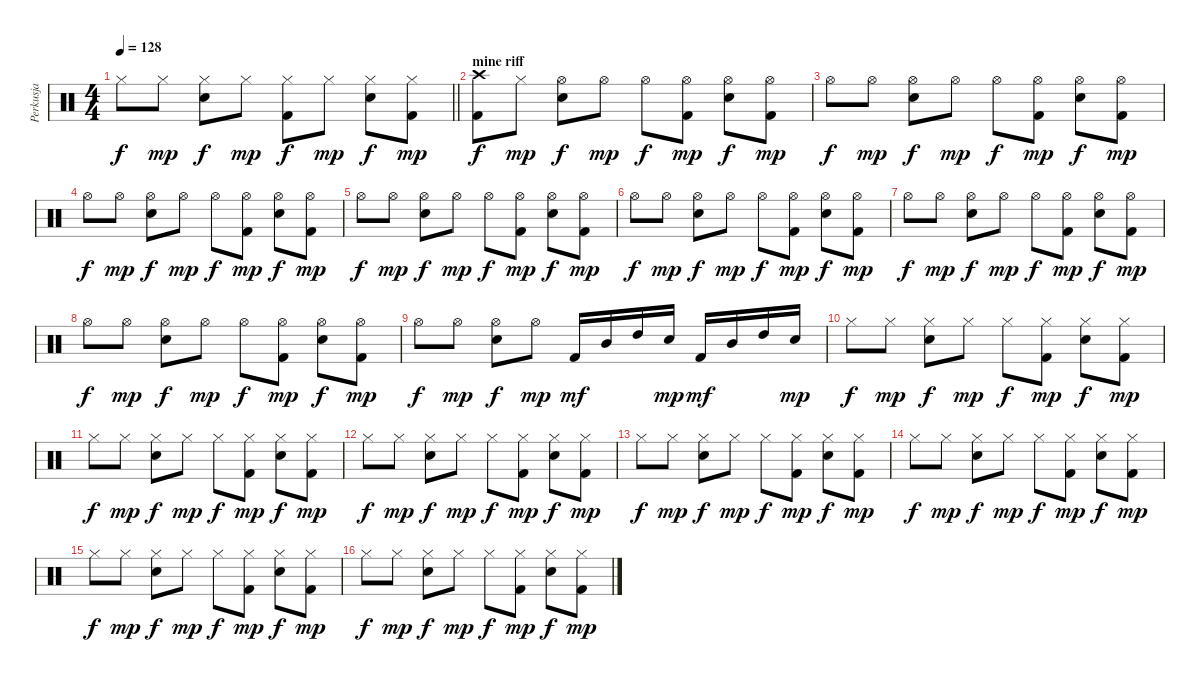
\track ("Perkusja" "Perkusja") {instrument percussion}
\staff {score}
\articulation defaults
\ts (4 4)
\tempo 128
\clef neutral
\barLineRight lightlight
\ks c "Hi-Hat (closed)".8{dy f} "Hi-Hat (closed)".8{dy mp}
("Hi-Hat (closed)" "Electric Snare (hit)").8{dy f} "Hi-Hat (closed)".8{dy mp} ("Hi-Hat (closed)" "Kick (hit) 2").8{dy f} "Hi-Hat (closed)".8{dy mp} ("Hi-Hat (closed)" "Electric Snare (hit)").8{dy f} ("Hi-Hat (closed)" "Kick (hit) 2").8{dy mp} |
\section ("" "mine riff")
("Crash high (hit)" "Kick (hit) 2").8{dy f} "Hi-Hat (closed)".8{dy mp} ("Hi-Hat (open)" "Electric Snare (hit)").8{dy f} "Hi-Hat (open)".8{dy mp} "Hi-Hat (open)".8{dy f} ("Hi-Hat (open)" "Kick (hit) 2").8{dy mp} ("Hi-Hat (open)" "Electric Snare (hit)").8{dy f} ("Hi-Hat (open)" "Kick (hit) 2").8{dy mp} |
"Hi-Hat (open)".8{dy f} "Hi-Hat (open)".8{dy mp} ("Hi-Hat (open)" "Electric Snare (hit)").8{dy f} "Hi-Hat (open)".8{dy mp} "Hi-Hat (open)".8{dy f} ("Hi-Hat (open)" "Kick (hit) 2").8{dy mp} ("Hi-Hat (open)" "Electric Snare (hit)").8{dy f} ("Hi-Hat (open)" "Kick (hit) 2").8{dy mp} |
"Hi-Hat (open)".8{dy f} "Hi-Hat (open)".8{dy mp} ("Hi-Hat (open)" "Electric Snare (hit)").8{dy f} "Hi-Hat (open)".8{dy mp} "Hi-Hat (open)".8{dy f} ("Hi-Hat (open)" "Kick (hit) 2").8{dy mp} ("Hi-Hat (open)" "Electric Snare (hit)").8{dy f} ("Hi-Hat (open)" "Kick (hit) 2").8{dy mp} |
"Hi-Hat (open)".8{dy f} "Hi-Hat (open)".8{dy mp} ("Hi-Hat (open)" "Electric Snare (hit)").8{dy f} "Hi-Hat (open)".8{dy mp} "Hi-Hat (open)".8{dy f} ("Hi-Hat (open)" "Kick (hit) 2").8{dy mp} ("Hi-Hat (open)" "Electric Snare (hit)").8{dy f} ("Hi-Hat (open)" "Kick (hit) 2").8{dy mp} |
"Hi-Hat (open)".8{dy f} "Hi-Hat (open)".8{dy mp} ("Hi-Hat (open)" "Electric Snare (hit)").8{dy f} "Hi-Hat (open)".8{dy mp} "Hi-Hat (open)".8{dy f} ("Hi-Hat (open)" "Kick (hit) 2").8{dy mp} ("Hi-Hat (open)" "Electric Snare (hit)").8{dy f} ("Hi-Hat (open)" "Kick (hit) 2").8{dy mp} |
"Hi-Hat (open)".8{dy f} "Hi-Hat (open)".8{dy mp} ("Hi-Hat (open)" "Electric Snare (hit)").8{dy f} "Hi-Hat (open)".8{dy mp} "Hi-Hat (open)".8{dy f} ("Hi-Hat (open)" "Kick (hit) 2").8{dy mp} ("Hi-Hat (open)" "Electric Snare (hit)").8{dy f} ("Hi-Hat (open)" "Kick (hit) 2").8{dy mp} |
"Hi-Hat (open)".8{dy f} "Hi-Hat (open)".8{dy mp} ("Hi-Hat (open)" "Electric Snare (hit)").8{dy f} "Hi-Hat (open)".8{dy mp} "Hi-Hat (open)".8{dy f} ("Hi-Hat (open)" "Kick (hit) 2").8{dy mp} ("Hi-Hat (open)" "Electric Snare (hit)").8{dy f} ("Hi-Hat (open)" "Kick (hit) 2").8{dy mp} |
"Hi-Hat (open)".8{dy f} "Hi-Hat (open)".8{dy mp} ("Hi-Hat (open)" "Electric Snare (hit)").8{dy f} "Hi-Hat (open)".8{dy mp} "Kick (hit) 2".16{dy mf} "Mid Tom (hit)".16 "High Tom (hit)".16 "Electric Snare (hit)".16{dy mp} "Kick (hit) 2".16{dy mf} "Mid Tom (hit)".16 "High Tom (hit)".16 "Electric Snare (hit)".16{dy mp} |
"Hi-Hat (closed)".8{dy f} "Hi-Hat (closed)".8{dy mp} ("Hi-Hat (closed)" "Electric Snare (hit)").8{dy f} "Hi-Hat (closed)".8{dy mp} "Hi-Hat (closed)".8{dy f} ("Hi-Hat (closed)" "Kick (hit) 2").8{dy mp} ("Hi-Hat (closed)" "Electric Snare (hit)").8{dy f} ("Hi-Hat (closed)" "Kick (hit) 2").8{dy mp} |
"Hi-Hat (closed)".8{dy f} "Hi-Hat (closed)".8{dy mp} ("Hi-Hat (closed)" "Electric Snare (hit)").8{dy f} "Hi-Hat (closed)".8{dy mp} "Hi-Hat (closed)".8{dy f} ("Hi-Hat (closed)" "Kick (hit) 2").8{dy mp} ("Hi-Hat (closed)" "Electric Snare (hit)").8{dy f} ("Hi-Hat (closed)" "Kick (hit) 2").8{dy mp} |
"Hi-Hat (closed)".8{dy f} "Hi-Hat (closed)".8{dy mp} ("Hi-Hat (closed)" "Electric Snare (hit)").8{dy f} "Hi-Hat (closed)".8{dy mp} "Hi-Hat (closed)".8{dy f} ("Hi-Hat (closed)" "Kick (hit) 2").8{dy mp} ("Hi-Hat (closed)" "Electric Snare (hit)").8{dy f} ("Hi-Hat (closed)" "Kick (hit) 2").8{dy mp} |
"Hi-Hat (closed)".8{dy f} "Hi-Hat (closed)".8{dy mp} ("Hi-Hat (closed)" "Electric Snare (hit)").8{dy f} "Hi-Hat (closed)".8{dy mp} "Hi-Hat (closed)".8{dy f} ("Hi-Hat (closed)" "Kick (hit) 2").8{dy mp} ("Hi-Hat (closed)" "Electric Snare (hit)").8{dy f} ("Hi-Hat (closed)" "Kick (hit) 2").8{dy mp} |
"Hi-Hat (closed)".8{dy f} "Hi-Hat (closed)".8{dy mp} ("Hi-Hat (closed)" "Electric Snare (hit)").8{dy f} "Hi-Hat (closed)".8{dy mp} "Hi-Hat (closed)".8{dy f} ("Hi-Hat (closed)" "Kick (hit) 2").8{dy mp} ("Hi-Hat (closed)" "Electric Snare (hit)").8{dy f} ("Hi-Hat (closed)" "Kick (hit) 2").8{dy mp} |
"Hi-Hat (closed)".8{dy f} "Hi-Hat (closed)".8{dy mp} ("Hi-Hat (closed)" "Electric Snare (hit)").8{dy f} "Hi-Hat (closed)".8{dy mp} "Hi-Hat (closed)".8{dy f} ("Hi-Hat (closed)" "Kick (hit) 2").8{dy mp} ("Hi-Hat (closed)" "Electric Snare (hit)").8{dy f} ("Hi-Hat (closed)" "Kick (hit) 2").8{dy mp} |
"Hi-Hat (closed)".8{dy f} "Hi-Hat (closed)".8{dy mp} ("Hi-Hat (closed)" "Electric Snare (hit)").8{dy f} "Hi-Hat (closed)".8{dy mp} "Hi-Hat (closed)".8{dy f} ("Hi-Hat (closed)" "Kick (hit) 2").8{dy mp} ("Hi-Hat (closed)" "Electric Snare (hit)").8{dy f} ("Hi-Hat (closed)" "Kick (hit) 2").8{dy mp}
